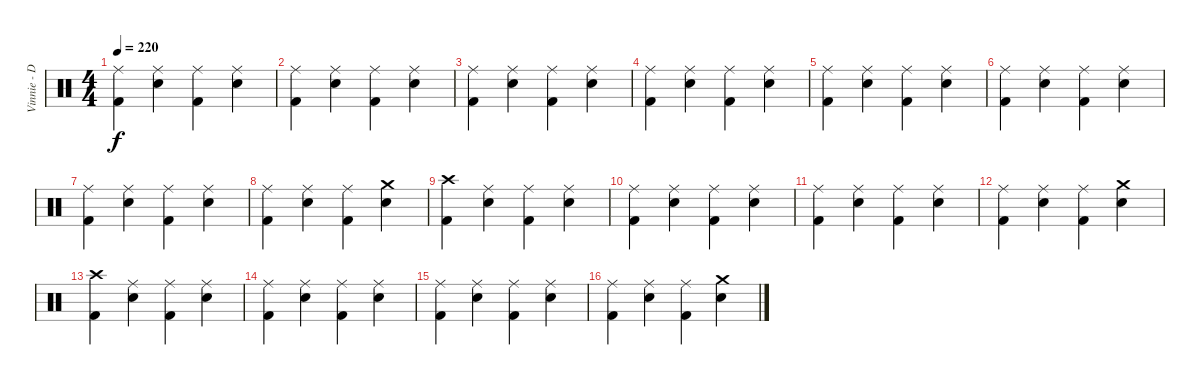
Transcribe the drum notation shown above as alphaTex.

\track ("Vinnie - Drums" "Vinnie - D") {instrument percussion}
\staff {score}
\articulation defaults
\ts (4 4)
\tempo 220
\clef neutral
\ks c
("Ride (middle)" "Kick (hit) 2").4{dy f} ("Ride (middle)" "Electric Snare (hit)").4 ("Ride (middle)" "Kick (hit) 2").4 ("Ride (middle)" "Electric Snare (hit)").4 |
("Ride (middle)" "Kick (hit) 2").4 ("Ride (middle)" "Electric Snare (hit)").4 ("Ride (middle)" "Kick (hit) 2").4 ("Ride (middle)" "Electric Snare (hit)").4 |
("Ride (middle)" "Kick (hit) 2").4 ("Ride (middle)" "Electric Snare (hit)").4 ("Ride (middle)" "Kick (hit) 2").4 ("Ride (middle)" "Electric Snare (hit)").4 |
("Ride (middle)" "Kick (hit) 2").4 ("Ride (middle)" "Electric Snare (hit)").4 ("Ride (middle)" "Kick (hit) 2").4 ("Ride (middle)" "Electric Snare (hit)").4 |
("Ride (middle)" "Kick (hit) 2").4 ("Ride (middle)" "Electric Snare (hit)").4 ("Ride (middle)" "Kick (hit) 2").4 ("Ride (middle)" "Electric Snare (hit)").4 |
("Ride (middle)" "Kick (hit) 2").4 ("Ride (middle)" "Electric Snare (hit)").4 ("Ride (middle)" "Kick (hit) 2").4 ("Ride (middle)" "Electric Snare (hit)").4 |
("Ride (middle)" "Kick (hit) 2").4 ("Ride (middle)" "Electric Snare (hit)").4 ("Ride (middle)" "Kick (hit) 2").4 ("Ride (middle)" "Electric Snare (hit)").4 |
("Ride (middle)" "Kick (hit) 2").4 ("Ride (middle)" "Electric Snare (hit)").4 ("Ride (middle)" "Kick (hit) 2").4 ("Crash medium (hit)" "Electric Snare (hit)").4 |
("Crash high (hit)" "Kick (hit) 2").4 ("Ride (middle)" "Electric Snare (hit)").4 ("Ride (middle)" "Kick (hit) 2").4 ("Ride (middle)" "Electric Snare (hit)").4 |
("Ride (middle)" "Kick (hit) 2").4 ("Ride (middle)" "Electric Snare (hit)").4 ("Ride (middle)" "Kick (hit) 2").4 ("Ride (middle)" "Electric Snare (hit)").4 |
("Ride (middle)" "Kick (hit) 2").4 ("Ride (middle)" "Electric Snare (hit)").4 ("Ride (middle)" "Kick (hit) 2").4 ("Ride (middle)" "Electric Snare (hit)").4 |
("Ride (middle)" "Kick (hit) 2").4 ("Ride (middle)" "Electric Snare (hit)").4 ("Ride (middle)" "Kick (hit) 2").4 ("Crash medium (hit)" "Electric Snare (hit)").4 |
("Crash high (hit)" "Kick (hit) 2").4 ("Ride (middle)" "Electric Snare (hit)").4 ("Ride (middle)" "Kick (hit) 2").4 ("Ride (middle)" "Electric Snare (hit)").4 |
("Ride (middle)" "Kick (hit) 2").4 ("Ride (middle)" "Electric Snare (hit)").4 ("Ride (middle)" "Kick (hit) 2").4 ("Ride (middle)" "Electric Snare (hit)").4 |
("Ride (middle)" "Kick (hit) 2").4 ("Ride (middle)" "Electric Snare (hit)").4 ("Ride (middle)" "Kick (hit) 2").4 ("Ride (middle)" "Electric Snare (hit)").4 |
("Ride (middle)" "Kick (hit) 2").4 ("Ride (middle)" "Electric Snare (hit)").4 ("Ride (middle)" "Kick (hit) 2").4 ("Crash medium (hit)" "Electric Snare (hit)").4
